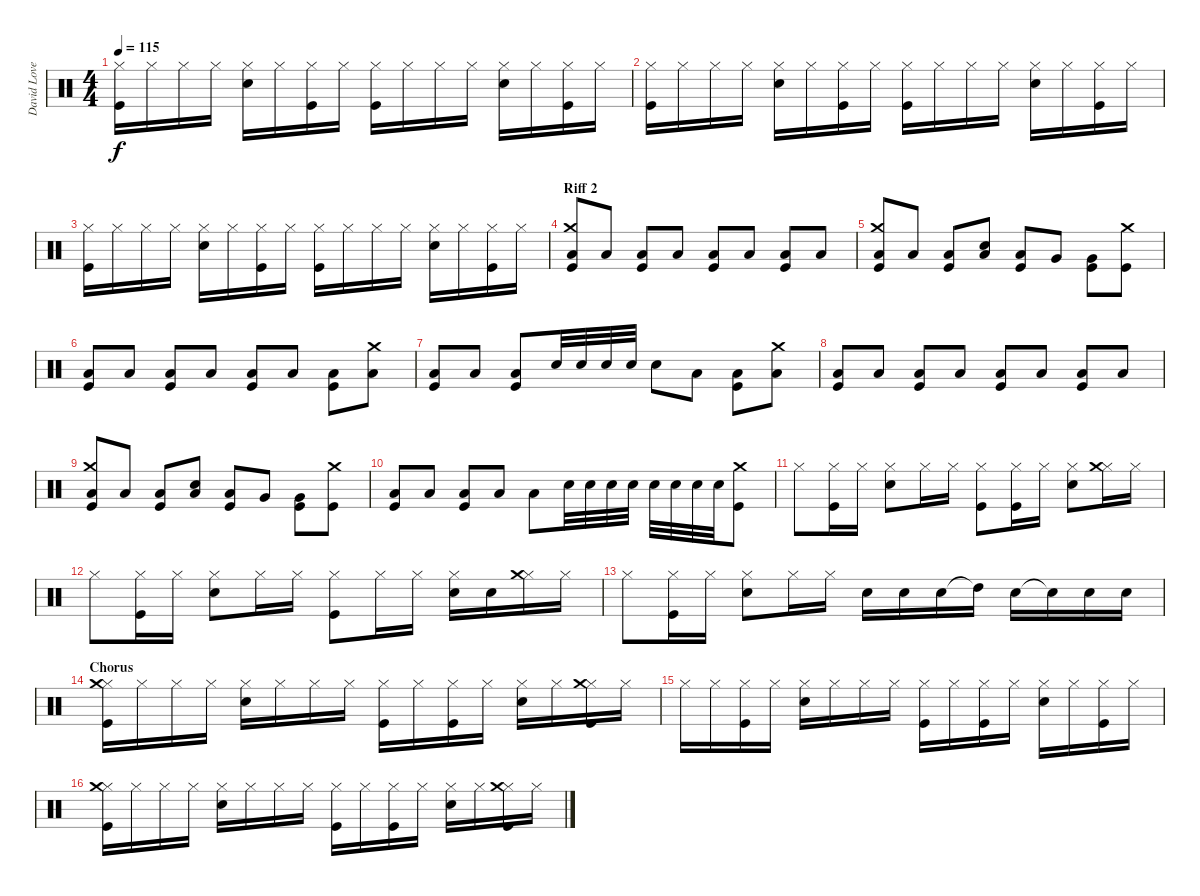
\track ("David Lovering" "David Love") {instrument percussion}
\staff {score}
\articulation defaults
\ts (4 4)
\tempo 115
\clef neutral
\ks c
("Hi-Hat (closed)" "Kick (hit)").16{dy f} "Hi-Hat (closed)".16 "Hi-Hat (closed)".16 "Hi-Hat (closed)".16 ("Hi-Hat (closed)" "Snare (hit) 2").16 "Hi-Hat (closed)".16 ("Hi-Hat (closed)" "Kick (hit)").16 "Hi-Hat (closed)".16 ("Hi-Hat (closed)" "Kick (hit)").16 "Hi-Hat (closed)".16 "Hi-Hat (closed)".16 "Hi-Hat (closed)".16 ("Hi-Hat (closed)" "Snare (hit) 2").16 "Hi-Hat (closed)".16 ("Hi-Hat (closed)" "Kick (hit)").16 "Hi-Hat (closed)".16 |
("Hi-Hat (closed)" "Kick (hit)").16 "Hi-Hat (closed)".16 "Hi-Hat (closed)".16 "Hi-Hat (closed)".16 ("Hi-Hat (closed)" "Snare (hit) 2").16 "Hi-Hat (closed)".16 ("Hi-Hat (closed)" "Kick (hit)").16 "Hi-Hat (closed)".16 ("Hi-Hat (closed)" "Kick (hit)").16 "Hi-Hat (closed)".16 "Hi-Hat (closed)".16 "Hi-Hat (closed)".16 ("Hi-Hat (closed)" "Snare (hit) 2").16 "Hi-Hat (closed)".16 ("Hi-Hat (closed)" "Kick (hit)").16 "Hi-Hat (closed)".16 |
("Hi-Hat (closed)" "Kick (hit)").16 "Hi-Hat (closed)".16 "Hi-Hat (closed)".16 "Hi-Hat (closed)".16 ("Hi-Hat (closed)" "Snare (hit) 2").16 "Hi-Hat (closed)".16 ("Hi-Hat (closed)" "Kick (hit)").16 "Hi-Hat (closed)".16 ("Hi-Hat (closed)" "Kick (hit)").16 "Hi-Hat (closed)".16 "Hi-Hat (closed)".16 "Hi-Hat (closed)".16 ("Hi-Hat (closed)" "Snare (hit) 2").16 "Hi-Hat (closed)".16 ("Hi-Hat (closed)" "Kick (hit)").16 "Hi-Hat (closed)".16 |
\section ("" "Riff 2")
("Crash medium (hit)" "Low Floor Tom (hit)" "Kick (hit)").8 "Low Floor Tom (hit)".8 ("Low Floor Tom (hit)" "Kick (hit)").8 "Low Floor Tom (hit)".8 ("Low Floor Tom (hit)" "Kick (hit)").8 "Low Floor Tom (hit)".8 ("Low Floor Tom (hit)" "Kick (hit)").8 "Low Floor Tom (hit)".8 |
("Crash medium (hit)" "Low Floor Tom (hit)" "Kick (hit)").8 "Low Floor Tom (hit)".8 ("Low Floor Tom (hit)" "Kick (hit)").8 ("Snare (hit) 2" "Low Floor Tom (hit)").8 ("Low Floor Tom (hit)" "Kick (hit)").8 "Very Low Tom (hit)".8 ("Very Low Tom (hit)" "Kick (hit)").8 ("Crash medium (hit)" "Kick (hit)").8 |
("Low Floor Tom (hit)" "Kick (hit)").8 "Low Floor Tom (hit)".8 ("Low Floor Tom (hit)" "Kick (hit)").8 "Low Floor Tom (hit)".8 ("Low Floor Tom (hit)" "Kick (hit)").8 "Low Floor Tom (hit)".8 ("Low Floor Tom (hit)" "Kick (hit)").8 ("Crash medium (hit)" "Low Floor Tom (hit)").8 |
("Low Floor Tom (hit)" "Kick (hit)").8 "Low Floor Tom (hit)".8 ("Low Floor Tom (hit)" "Kick (hit)").8 "Snare (hit) 2".32 "Snare (hit) 2".32 "Snare (hit) 2".32 "Snare (hit) 2".32 "Snare (hit) 2".8 "Low Floor Tom (hit)".8 ("Low Tom (hit)" "Kick (hit)").8 ("Crash medium (hit)" "Low Floor Tom (hit)").8 |
("Low Floor Tom (hit)" "Kick (hit)").8 "Low Floor Tom (hit)".8 ("Low Floor Tom (hit)" "Kick (hit)").8 "Low Floor Tom (hit)".8 ("Low Floor Tom (hit)" "Kick (hit)").8 "Low Floor Tom (hit)".8 ("Low Floor Tom (hit)" "Kick (hit)").8 "Low Floor Tom (hit)".8 |
("Crash medium (hit)" "Low Floor Tom (hit)" "Kick (hit)").8 "Low Floor Tom (hit)".8 ("Low Floor Tom (hit)" "Kick (hit)").8 ("Snare (hit) 2" "Low Floor Tom (hit)").8 ("Low Floor Tom (hit)" "Kick (hit)").8 "Very Low Tom (hit)".8 ("Very Low Tom (hit)" "Kick (hit)").8 ("Crash medium (hit)" "Kick (hit)").8 |
("Low Floor Tom (hit)" "Kick (hit)").8 "Low Floor Tom (hit)".8 ("Low Floor Tom (hit)" "Kick (hit)").8 "Low Floor Tom (hit)".8 "Low Floor Tom (hit)".8 "Snare (hit) 2".32 "Snare (hit) 2".32 "Snare (hit) 2".32 "Snare (hit) 2".32 "Snare (hit) 2".32 "Snare (hit) 2".32 "Snare (hit) 2".32 "Snare (hit) 2".32 ("Crash medium (hit)" "Kick (hit)").8 |
"Hi-Hat (closed)".8 ("Hi-Hat (closed)" "Kick (hit)").16 "Hi-Hat (closed)".16 ("Hi-Hat (closed)" "Snare (hit) 2").8 "Hi-Hat (closed)".16 "Hi-Hat (closed)".16 ("Hi-Hat (closed)" "Kick (hit)").8 ("Hi-Hat (closed)" "Kick (hit)").16 "Hi-Hat (closed)".16 ("Hi-Hat (closed)" "Snare (hit) 2").8 ("Hi-Hat (closed)" "Crash medium (hit)").16 "Hi-Hat (closed)".16 |
"Hi-Hat (closed)".8 ("Hi-Hat (closed)" "Kick (hit)").16 "Hi-Hat (closed)".16 ("Hi-Hat (closed)" "Snare (hit) 2").8 "Hi-Hat (closed)".16 "Hi-Hat (closed)".16 ("Hi-Hat (closed)" "Kick (hit)").8 "Hi-Hat (closed)".16 "Hi-Hat (closed)".16 ("Hi-Hat (closed)" "Snare (hit) 2").16 "Snare (hit) 2".16 ("Hi-Hat (closed)" "Crash medium (hit)").16 "Hi-Hat (closed)".16 |
"Hi-Hat (closed)".8 ("Hi-Hat (closed)" "Kick (hit)").16 "Hi-Hat (closed)".16 ("Hi-Hat (closed)" "Snare (hit) 2").8 "Hi-Hat (closed)".16 "Hi-Hat (closed)".16 "Snare (hit) 2".16 "Snare (hit) 2".16 "Snare (hit) 2".16 "High Tom (hit)"{t}.16 "Snare (hit) 2".16 "Snare (hit) 2"{t}.16 "Snare (hit) 2".16 "Snare (hit) 2".16 |
\section ("" "Chorus")
("Hi-Hat (closed)" "Crash medium (hit)" "Kick (hit)").16 "Hi-Hat (closed)".16 "Hi-Hat (closed)".16 "Hi-Hat (closed)".16 ("Hi-Hat (closed)" "Snare (hit) 2").16 "Hi-Hat (closed)".16 "Hi-Hat (closed)".16 "Hi-Hat (closed)".16 ("Hi-Hat (closed)" "Kick (hit)").16 "Hi-Hat (closed)".16 ("Hi-Hat (closed)" "Kick (hit)").16 "Hi-Hat (closed)".16 ("Hi-Hat (closed)" "Snare (hit) 2").16 "Hi-Hat (closed)".16 ("Hi-Hat (closed)" "Crash medium (hit)" "Kick (hit)").16 "Hi-Hat (closed)".16 |
"Hi-Hat (closed)".16 "Hi-Hat (closed)".16 ("Hi-Hat (closed)" "Kick (hit)").16 "Hi-Hat (closed)".16 ("Hi-Hat (closed)" "Snare (hit) 2").16 "Hi-Hat (closed)".16 "Hi-Hat (closed)".16 "Hi-Hat (closed)".16 ("Hi-Hat (closed)" "Kick (hit)").16 "Hi-Hat (closed)".16 ("Hi-Hat (closed)" "Kick (hit)").16 "Hi-Hat (closed)".16 ("Hi-Hat (closed)" "Snare (hit) 2").16 "Hi-Hat (closed)".16 ("Hi-Hat (closed)" "Kick (hit)").16 "Hi-Hat (closed)".16 |
("Hi-Hat (closed)" "Crash medium (hit)" "Kick (hit)").16 "Hi-Hat (closed)".16 "Hi-Hat (closed)".16 "Hi-Hat (closed)".16 ("Hi-Hat (closed)" "Snare (hit) 2").16 "Hi-Hat (closed)".16 "Hi-Hat (closed)".16 "Hi-Hat (closed)".16 ("Hi-Hat (closed)" "Kick (hit)").16 "Hi-Hat (closed)".16 ("Hi-Hat (closed)" "Kick (hit)").16 "Hi-Hat (closed)".16 ("Hi-Hat (closed)" "Snare (hit) 2").16 "Hi-Hat (closed)".16 ("Hi-Hat (closed)" "Crash medium (hit)" "Kick (hit)").16 "Hi-Hat (closed)".16
